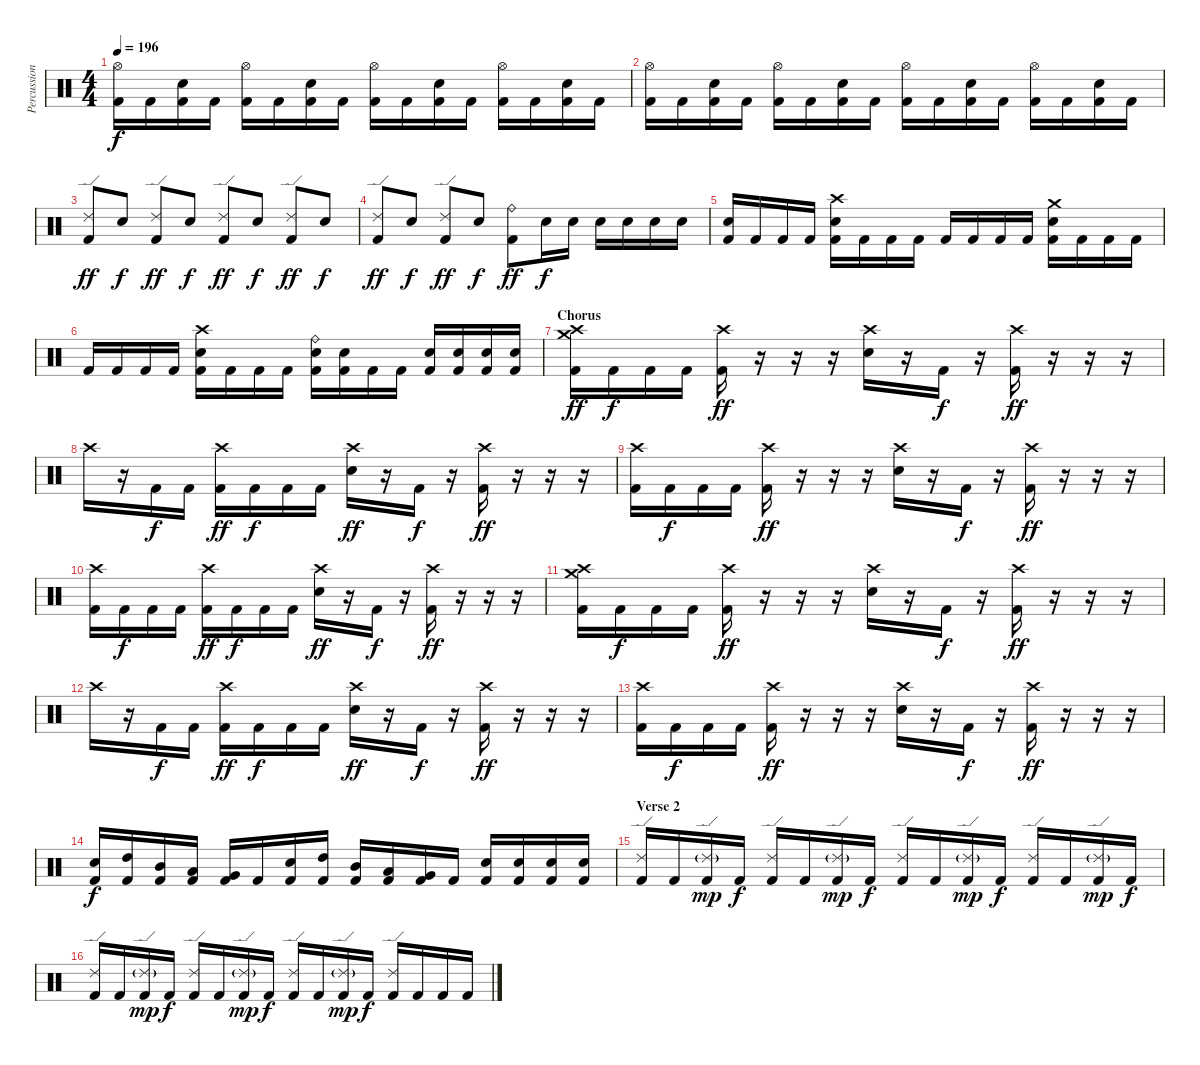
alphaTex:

\track ("Percussions" "Percussion") {instrument percussion}
\staff {score}
\articulation defaults
\ts (4 4)
\tempo 196
\clef neutral
\ks c
("Hi-Hat (open)" "Kick (hit) 2").16{dy f} "Kick (hit) 2".16 ("Electric Snare (hit)" "Kick (hit) 2").16 "Kick (hit) 2".16 ("Hi-Hat (open)" "Kick (hit) 2").16 "Kick (hit) 2".16 ("Electric Snare (hit)" "Kick (hit) 2").16 "Kick (hit) 2".16 ("Hi-Hat (open)" "Kick (hit) 2").16 "Kick (hit) 2".16 ("Electric Snare (hit)" "Kick (hit) 2").16 "Kick (hit) 2".16 ("Hi-Hat (open)" "Kick (hit) 2").16 "Kick (hit) 2".16 ("Electric Snare (hit)" "Kick (hit) 2").16 "Kick (hit) 2".16 |
("Hi-Hat (open)" "Kick (hit) 2").16 "Kick (hit) 2".16 ("Electric Snare (hit)" "Kick (hit) 2").16 "Kick (hit) 2".16 ("Hi-Hat (open)" "Kick (hit) 2").16 "Kick (hit) 2".16 ("Electric Snare (hit)" "Kick (hit) 2").16 "Kick (hit) 2".16 ("Hi-Hat (open)" "Kick (hit) 2").16 "Kick (hit) 2".16 ("Electric Snare (hit)" "Kick (hit) 2").16 "Kick (hit) 2".16 ("Hi-Hat (open)" "Kick (hit) 2").16 "Kick (hit) 2".16 ("Electric Snare (hit)" "Kick (hit) 2").16 "Kick (hit) 2".16 |
("Ride (edge) 2" "Kick (hit) 2").8{dy ff} "Electric Snare (hit)".8{dy f} ("Ride (edge) 2" "Kick (hit) 2").8{dy ff} "Electric Snare (hit)".8{dy f} ("Ride (edge) 2" "Kick (hit) 2").8{dy ff} "Electric Snare (hit)".8{dy f} ("Ride (edge) 2" "Kick (hit) 2").8{dy ff} "Electric Snare (hit)".8{dy f} |
("Ride (edge) 2" "Kick (hit) 2").8{dy ff} "Electric Snare (hit)".8{dy f} ("Ride (edge) 2" "Kick (hit) 2").8{dy ff} "Electric Snare (hit)".8{dy f} ("Ride (bell)" "Kick (hit) 2").8{dy ff} "Electric Snare (hit)".16{dy f} "Electric Snare (hit)".16 "Electric Snare (hit)".16 "Electric Snare (hit)".16 "Electric Snare (hit)".16 "Electric Snare (hit)".16 |
("Electric Snare (hit)" "Kick (hit) 2").16 "Kick (hit) 2".16 "Kick (hit) 2".16 "Kick (hit) 2".16 ("Crash high (hit)" "Electric Snare (hit)" "Kick (hit) 2").16 "Kick (hit) 2".16 "Kick (hit) 2".16 "Kick (hit) 2".16 "Kick (hit) 2".16 "Kick (hit) 2".16 "Kick (hit) 2".16 "Kick (hit) 2".16 ("Crash medium (hit)" "Electric Snare (hit)" "Kick (hit) 2").16 "Kick (hit) 2".16 "Kick (hit) 2".16 "Kick (hit) 2".16 |
"Kick (hit) 2".16 "Kick (hit) 2".16 "Kick (hit) 2".16 "Kick (hit) 2".16 ("Crash high (hit)" "Electric Snare (hit)" "Kick (hit) 2").16 "Kick (hit) 2".16 "Kick (hit) 2".16 "Kick (hit) 2".16 ("Ride (bell)" "Electric Snare (hit)" "Kick (hit) 2").16 ("Electric Snare (hit)" "Kick (hit) 2").16 "Kick (hit) 2".16 "Kick (hit) 2".16 ("Electric Snare (hit)" "Kick (hit) 2").16 ("Electric Snare (hit)" "Kick (hit) 2").16 ("Electric Snare (hit)" "Kick (hit) 2").16 ("Electric Snare (hit)" "Kick (hit) 2").16 |
\section ("" "Chorus")
("Crash medium (hit)" "Crash high (hit)" "Kick (hit) 2").16{dy ff} "Kick (hit) 2".16{dy f} "Kick (hit) 2".16 "Kick (hit) 2".16 ("Crash high (hit)" "Kick (hit) 2").16{dy ff} r.16 r.16 r.16 ("Crash high (hit)" "Electric Snare (hit)").16 r.16 "Kick (hit) 2".16{dy f} r.16 ("Crash high (hit)" "Kick (hit) 2").16{dy ff} r.16 r.16 r.16 |
"Crash high (hit)".16 r.16 "Kick (hit) 2".16{dy f} "Kick (hit) 2".16 ("Crash high (hit)" "Kick (hit) 2").16{dy ff} "Kick (hit) 2".16{dy f} "Kick (hit) 2".16 "Kick (hit) 2".16 ("Crash high (hit)" "Electric Snare (hit)").16{dy ff} r.16 "Kick (hit) 2".16{dy f} r.16 ("Crash high (hit)" "Kick (hit) 2").16{dy ff} r.16 r.16 r.16 |
("Crash high (hit)" "Kick (hit) 2").16 "Kick (hit) 2".16{dy f} "Kick (hit) 2".16 "Kick (hit) 2".16 ("Crash high (hit)" "Kick (hit) 2").16{dy ff} r.16 r.16 r.16 ("Crash high (hit)" "Electric Snare (hit)").16 r.16 "Kick (hit) 2".16{dy f} r.16 ("Crash high (hit)" "Kick (hit) 2").16{dy ff} r.16 r.16 r.16 |
("Crash high (hit)" "Kick (hit) 2").16 "Kick (hit) 2".16{dy f} "Kick (hit) 2".16 "Kick (hit) 2".16 ("Crash high (hit)" "Kick (hit) 2").16{dy ff} "Kick (hit) 2".16{dy f} "Kick (hit) 2".16 "Kick (hit) 2".16 ("Crash high (hit)" "Electric Snare (hit)").16{dy ff} r.16 "Kick (hit) 2".16{dy f} r.16 ("Crash high (hit)" "Kick (hit) 2").16{dy ff} r.16 r.16 r.16 |
("Crash medium (hit)" "Crash high (hit)" "Kick (hit) 2").16 "Kick (hit) 2".16{dy f} "Kick (hit) 2".16 "Kick (hit) 2".16 ("Crash high (hit)" "Kick (hit) 2").16{dy ff} r.16 r.16 r.16 ("Crash high (hit)" "Electric Snare (hit)").16 r.16 "Kick (hit) 2".16{dy f} r.16 ("Crash high (hit)" "Kick (hit) 2").16{dy ff} r.16 r.16 r.16 |
"Crash high (hit)".16 r.16 "Kick (hit) 2".16{dy f} "Kick (hit) 2".16 ("Crash high (hit)" "Kick (hit) 2").16{dy ff} "Kick (hit) 2".16{dy f} "Kick (hit) 2".16 "Kick (hit) 2".16 ("Crash high (hit)" "Electric Snare (hit)").16{dy ff} r.16 "Kick (hit) 2".16{dy f} r.16 ("Crash high (hit)" "Kick (hit) 2").16{dy ff} r.16 r.16 r.16 |
("Crash high (hit)" "Kick (hit) 2").16 "Kick (hit) 2".16{dy f} "Kick (hit) 2".16 "Kick (hit) 2".16 ("Crash high (hit)" "Kick (hit) 2").16{dy ff} r.16 r.16 r.16 ("Crash high (hit)" "Electric Snare (hit)").16 r.16 "Kick (hit) 2".16{dy f} r.16 ("Crash high (hit)" "Kick (hit) 2").16{dy ff} r.16 r.16 r.16 |
("Electric Snare (hit)" "Kick (hit) 2").16{dy f} ("High Tom (hit)" "Kick (hit) 2").16 ("Mid Tom (hit)" "Kick (hit) 2").16 ("Low Tom (hit)" "Kick (hit) 2").16 ("Very Low Tom (hit)" "Kick (hit) 2").16 "Kick (hit) 2".16 ("Electric Snare (hit)" "Kick (hit) 2").16 ("High Tom (hit)" "Kick (hit) 2").16 ("Mid Tom (hit)" "Kick (hit) 2").16 ("Low Tom (hit)" "Kick (hit) 2").16 ("Very Low Tom (hit)" "Kick (hit) 2").16 "Kick (hit) 2".16 ("Electric Snare (hit)" "Kick (hit) 2").16 ("Electric Snare (hit)" "Kick (hit) 2").16 ("Electric Snare (hit)" "Kick (hit) 2").16 ("Electric Snare (hit)" "Kick (hit) 2").16 |
\section ("" "Verse 2")
("Ride (edge) 2" "Kick (hit) 2").16 "Kick (hit) 2".16 ("Ride (edge) 2"{g} "Kick (hit) 2").16{dy mp} "Kick (hit) 2".16{dy f} ("Ride (edge) 2" "Kick (hit) 2").16 "Kick (hit) 2".16 ("Ride (edge) 2"{g} "Kick (hit) 2").16{dy mp} "Kick (hit) 2".16{dy f} ("Ride (edge) 2" "Kick (hit) 2").16 "Kick (hit) 2".16 ("Ride (edge) 2"{g} "Kick (hit) 2").16{dy mp} "Kick (hit) 2".16{dy f} ("Ride (edge) 2" "Kick (hit) 2").16 "Kick (hit) 2".16 ("Ride (edge) 2"{g} "Kick (hit) 2").16{dy mp} "Kick (hit) 2".16{dy f} |
("Ride (edge) 2" "Kick (hit) 2").16 "Kick (hit) 2".16 ("Ride (edge) 2"{g} "Kick (hit) 2").16{dy mp} "Kick (hit) 2".16{dy f} ("Ride (edge) 2" "Kick (hit) 2").16 "Kick (hit) 2".16 ("Ride (edge) 2"{g} "Kick (hit) 2").16{dy mp} "Kick (hit) 2".16{dy f} ("Ride (edge) 2" "Kick (hit) 2").16 "Kick (hit) 2".16 ("Ride (edge) 2"{g} "Kick (hit) 2").16{dy mp} "Kick (hit) 2".16{dy f} ("Ride (edge) 2" "Kick (hit) 2").16 "Kick (hit) 2".16 "Kick (hit) 2".16 "Kick (hit) 2".16
